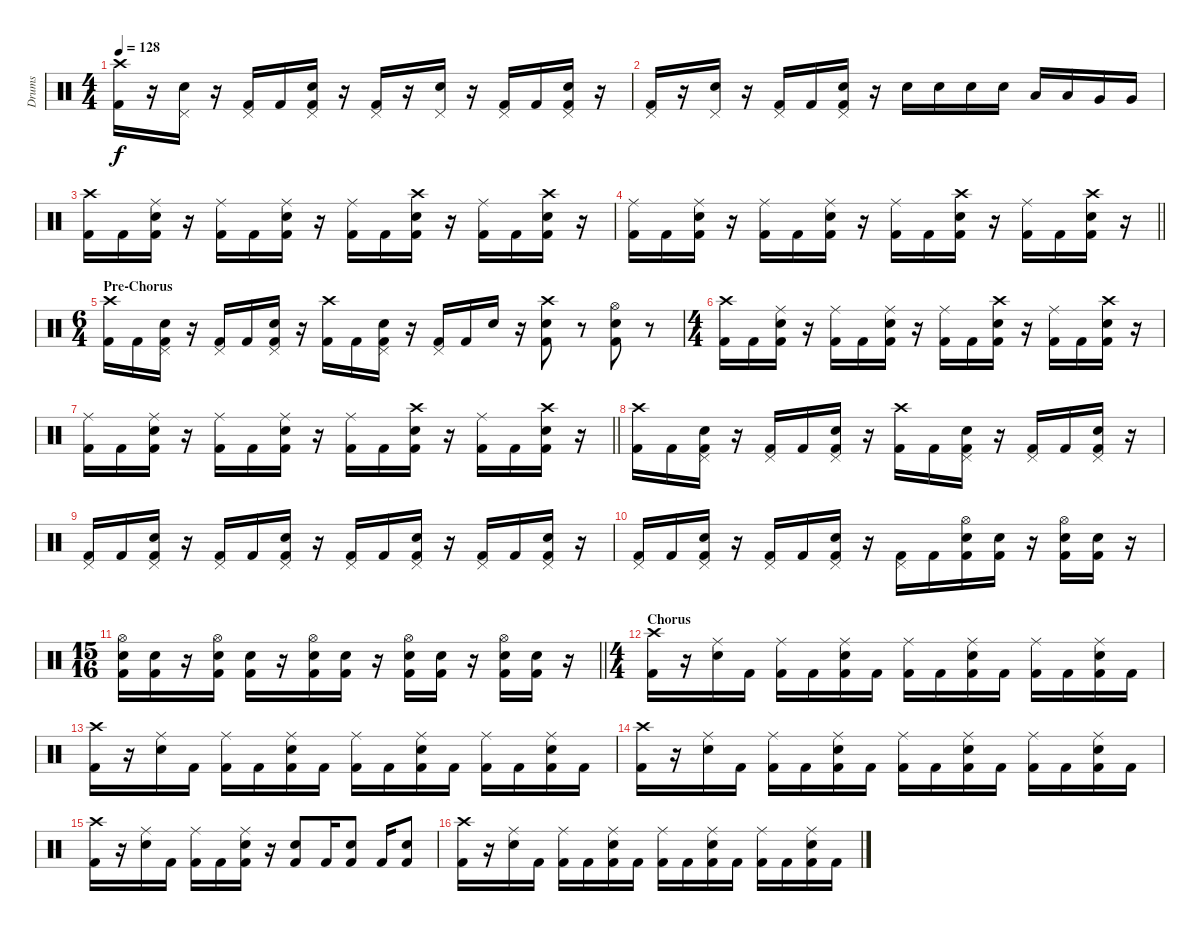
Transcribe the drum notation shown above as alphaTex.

\track ("Drums" "Drums") {instrument percussion}
\staff {score}
\articulation defaults
\ts (4 4)
\tempo 128
\clef neutral
\ks c
("Crash high (hit)" "Kick (hit) 2").16{dy f} r.16 ("Pedal Hi-Hat (hit)" "Snare (hit) 2").16 r.16 ("Pedal Hi-Hat (hit)" "Kick (hit) 2").16 "Kick (hit) 2".16 ("Pedal Hi-Hat (hit)" "Snare (hit) 2" "Kick (hit) 2").16 r.16 ("Pedal Hi-Hat (hit)" "Kick (hit) 2").16 r.16 ("Pedal Hi-Hat (hit)" "Snare (hit) 2").16 r.16 ("Pedal Hi-Hat (hit)" "Kick (hit) 2").16 "Kick (hit) 2".16 ("Pedal Hi-Hat (hit)" "Snare (hit) 2" "Kick (hit) 2").16 r.16 |
("Pedal Hi-Hat (hit)" "Kick (hit) 2").16 r.16 ("Pedal Hi-Hat (hit)" "Snare (hit) 2").16 r.16 ("Pedal Hi-Hat (hit)" "Kick (hit) 2").16 "Kick (hit) 2".16 ("Pedal Hi-Hat (hit)" "Snare (hit) 2" "Kick (hit) 2").16 r.16 "Snare (hit) 2".16 "Snare (hit) 2".16 "Snare (hit) 2".16 "Snare (hit) 2".16 "Low Tom (hit)".16 "Low Tom (hit)".16 "Very Low Tom (hit)".16 "Very Low Tom (hit)".16 |
("Crash high (hit)" "Kick (hit) 2").16 "Kick (hit) 2".16 ("Ride (middle)" "Snare (hit) 2" "Kick (hit) 2").16 r.16 ("Ride (middle)" "Kick (hit) 2").16 "Kick (hit) 2".16 ("Ride (middle)" "Snare (hit) 2" "Kick (hit) 2").16 r.16 ("Ride (middle)" "Kick (hit) 2").16 "Kick (hit) 2".16 ("Crash high (hit)" "Snare (hit) 2" "Kick (hit) 2").16 r.16 ("Ride (middle)" "Kick (hit) 2").16 "Kick (hit) 2".16 ("Crash high (hit)" "Snare (hit) 2" "Kick (hit) 2").16 r.16 |
\barLineRight lightlight
("Ride (middle)" "Kick (hit) 2").16 "Kick (hit) 2".16 ("Ride (middle)" "Snare (hit) 2" "Kick (hit) 2").16 r.16 ("Ride (middle)" "Kick (hit) 2").16 "Kick (hit) 2".16 ("Ride (middle)" "Snare (hit) 2" "Kick (hit) 2").16 r.16 ("Ride (middle)" "Kick (hit) 2").16 "Kick (hit) 2".16 ("Crash high (hit)" "Snare (hit) 2" "Kick (hit) 2").16 r.16 ("Ride (middle)" "Kick (hit) 2").16 "Kick (hit) 2".16 ("Crash high (hit)" "Snare (hit) 2" "Kick (hit) 2").16 r.16 |
\ts (6 4)
\section ("" "Pre-Chorus")
("Crash high (hit)" "Kick (hit) 2").16 "Kick (hit) 2".16 ("Pedal Hi-Hat (hit)" "Snare (hit) 2" "Kick (hit) 2").16 r.16 ("Pedal Hi-Hat (hit)" "Kick (hit) 2").16 "Kick (hit) 2".16 ("Pedal Hi-Hat (hit)" "Snare (hit) 2" "Kick (hit) 2").16 r.16 ("Crash high (hit)" "Kick (hit) 2").16 "Kick (hit) 2".16 ("Pedal Hi-Hat (hit)" "Snare (hit) 2" "Kick (hit) 2").16 r.16 ("Pedal Hi-Hat (hit)" "Kick (hit) 2").16 "Kick (hit) 2".16 "Snare (hit) 2".16 r.16 ("Crash high (hit)" "Snare (hit) 2" "Kick (hit) 2").8 r.8 ("Hi-Hat (open)" "Snare (hit) 2" "Kick (hit) 2").8 r.8 |
\ts (4 4)
("Crash high (hit)" "Kick (hit) 2").16 "Kick (hit) 2".16 ("Ride (middle)" "Snare (hit) 2" "Kick (hit) 2").16 r.16 ("Ride (middle)" "Kick (hit) 2").16 "Kick (hit) 2".16 ("Ride (middle)" "Snare (hit) 2" "Kick (hit) 2").16 r.16 ("Ride (middle)" "Kick (hit) 2").16 "Kick (hit) 2".16 ("Crash high (hit)" "Snare (hit) 2" "Kick (hit) 2").16 r.16 ("Ride (middle)" "Kick (hit) 2").16 "Kick (hit) 2".16 ("Crash high (hit)" "Snare (hit) 2" "Kick (hit) 2").16 r.16 |
\barLineRight lightlight
("Ride (middle)" "Kick (hit) 2").16 "Kick (hit) 2".16 ("Ride (middle)" "Snare (hit) 2" "Kick (hit) 2").16 r.16 ("Ride (middle)" "Kick (hit) 2").16 "Kick (hit) 2".16 ("Ride (middle)" "Snare (hit) 2" "Kick (hit) 2").16 r.16 ("Ride (middle)" "Kick (hit) 2").16 "Kick (hit) 2".16 ("Crash high (hit)" "Snare (hit) 2" "Kick (hit) 2").16 r.16 ("Ride (middle)" "Kick (hit) 2").16 "Kick (hit) 2".16 ("Crash high (hit)" "Snare (hit) 2" "Kick (hit) 2").16 r.16 |
("Crash high (hit)" "Kick (hit) 2").16 "Kick (hit) 2".16 ("Pedal Hi-Hat (hit)" "Snare (hit) 2" "Kick (hit) 2").16 r.16 ("Pedal Hi-Hat (hit)" "Kick (hit) 2").16 "Kick (hit) 2".16 ("Pedal Hi-Hat (hit)" "Snare (hit) 2" "Kick (hit) 2").16 r.16 ("Crash high (hit)" "Kick (hit) 2").16 "Kick (hit) 2".16 ("Pedal Hi-Hat (hit)" "Snare (hit) 2" "Kick (hit) 2").16 r.16 ("Pedal Hi-Hat (hit)" "Kick (hit) 2").16 "Kick (hit) 2".16 ("Pedal Hi-Hat (hit)" "Snare (hit) 2" "Kick (hit) 2").16 r.16 |
("Pedal Hi-Hat (hit)" "Kick (hit) 2").16 "Kick (hit) 2".16 ("Pedal Hi-Hat (hit)" "Snare (hit) 2" "Kick (hit) 2").16 r.16 ("Pedal Hi-Hat (hit)" "Kick (hit) 2").16 "Kick (hit) 2".16 ("Pedal Hi-Hat (hit)" "Snare (hit) 2" "Kick (hit) 2").16 r.16 ("Pedal Hi-Hat (hit)" "Kick (hit) 2").16 "Kick (hit) 2".16 ("Pedal Hi-Hat (hit)" "Snare (hit) 2" "Kick (hit) 2").16 r.16 ("Pedal Hi-Hat (hit)" "Kick (hit) 2").16 "Kick (hit) 2".16 ("Pedal Hi-Hat (hit)" "Snare (hit) 2" "Kick (hit) 2").16 r.16 |
("Pedal Hi-Hat (hit)" "Kick (hit) 2").16 "Kick (hit) 2".16 ("Pedal Hi-Hat (hit)" "Snare (hit) 2" "Kick (hit) 2").16 r.16 ("Pedal Hi-Hat (hit)" "Kick (hit) 2").16 "Kick (hit) 2".16 ("Pedal Hi-Hat (hit)" "Snare (hit) 2" "Kick (hit) 2").16 r.16 ("Pedal Hi-Hat (hit)" "Kick (hit) 2").16 "Kick (hit) 2".16 ("Hi-Hat (open)" "Snare (hit) 2" "Kick (hit) 2").16 ("Snare (hit) 2" "Kick (hit) 2").16 r.16 ("Hi-Hat (open)" "Snare (hit) 2" "Kick (hit) 2").16 ("Snare (hit) 2" "Kick (hit) 2").16 r.16 |
\ts (15 16)
\barLineRight lightlight
("Hi-Hat (open)" "Snare (hit) 2" "Kick (hit) 2").16 ("Snare (hit) 2" "Kick (hit) 2").16 r.16 ("Hi-Hat (open)" "Snare (hit) 2" "Kick (hit) 2").16 ("Snare (hit) 2" "Kick (hit) 2").16 r.16 ("Hi-Hat (open)" "Snare (hit) 2" "Kick (hit) 2").16 ("Snare (hit) 2" "Kick (hit) 2").16 r.16 ("Hi-Hat (open)" "Snare (hit) 2" "Kick (hit) 2").16 ("Snare (hit) 2" "Kick (hit) 2").16 r.16 ("Hi-Hat (open)" "Snare (hit) 2" "Kick (hit) 2").16 ("Snare (hit) 2" "Kick (hit) 2").16 r.16 |
\ts (4 4)
\section ("" "Chorus")
("Crash high (hit)" "Kick (hit) 2").16 r.16 ("Ride (middle)" "Snare (hit) 2").16 "Kick (hit) 2".16 ("Ride (middle)" "Kick (hit) 2").16 "Kick (hit) 2".16 ("Ride (middle)" "Snare (hit) 2" "Kick (hit) 2").16 "Kick (hit) 2".16 ("Ride (middle)" "Kick (hit) 2").16 "Kick (hit) 2".16 ("Ride (middle)" "Snare (hit) 2" "Kick (hit) 2").16 "Kick (hit) 2".16 ("Ride (middle)" "Kick (hit) 2").16 "Kick (hit) 2".16 ("Ride (middle)" "Snare (hit) 2" "Kick (hit) 2").16 "Kick (hit) 2".16 |
("Crash high (hit)" "Kick (hit) 2").16 r.16 ("Ride (middle)" "Snare (hit) 2").16 "Kick (hit) 2".16 ("Ride (middle)" "Kick (hit) 2").16 "Kick (hit) 2".16 ("Ride (middle)" "Snare (hit) 2" "Kick (hit) 2").16 "Kick (hit) 2".16 ("Ride (middle)" "Kick (hit) 2").16 "Kick (hit) 2".16 ("Ride (middle)" "Snare (hit) 2" "Kick (hit) 2").16 "Kick (hit) 2".16 ("Ride (middle)" "Kick (hit) 2").16 "Kick (hit) 2".16 ("Ride (middle)" "Snare (hit) 2" "Kick (hit) 2").16 "Kick (hit) 2".16 |
("Crash high (hit)" "Kick (hit) 2").16 r.16 ("Ride (middle)" "Snare (hit) 2").16 "Kick (hit) 2".16 ("Ride (middle)" "Kick (hit) 2").16 "Kick (hit) 2".16 ("Ride (middle)" "Snare (hit) 2" "Kick (hit) 2").16 "Kick (hit) 2".16 ("Ride (middle)" "Kick (hit) 2").16 "Kick (hit) 2".16 ("Ride (middle)" "Snare (hit) 2" "Kick (hit) 2").16 "Kick (hit) 2".16 ("Ride (middle)" "Kick (hit) 2").16 "Kick (hit) 2".16 ("Ride (middle)" "Snare (hit) 2" "Kick (hit) 2").16 "Kick (hit) 2".16 |
("Crash high (hit)" "Kick (hit) 2").16 r.16 ("Ride (middle)" "Snare (hit) 2").16 "Kick (hit) 2".16 ("Ride (middle)" "Kick (hit) 2").16 "Kick (hit) 2".16 ("Ride (middle)" "Snare (hit) 2" "Kick (hit) 2").16 r.16 ("Snare (hit) 2" "Kick (hit) 2").8 "Kick (hit) 2".16 ("Snare (hit) 2" "Kick (hit) 2").8 "Kick (hit) 2".16 ("Snare (hit) 2" "Kick (hit) 2").8 |
("Crash high (hit)" "Kick (hit) 2").16 r.16 ("Ride (middle)" "Snare (hit) 2").16 "Kick (hit) 2".16 ("Ride (middle)" "Kick (hit) 2").16 "Kick (hit) 2".16 ("Ride (middle)" "Snare (hit) 2" "Kick (hit) 2").16 "Kick (hit) 2".16 ("Ride (middle)" "Kick (hit) 2").16 "Kick (hit) 2".16 ("Ride (middle)" "Snare (hit) 2" "Kick (hit) 2").16 "Kick (hit) 2".16 ("Ride (middle)" "Kick (hit) 2").16 "Kick (hit) 2".16 ("Ride (middle)" "Snare (hit) 2" "Kick (hit) 2").16 "Kick (hit) 2".16
